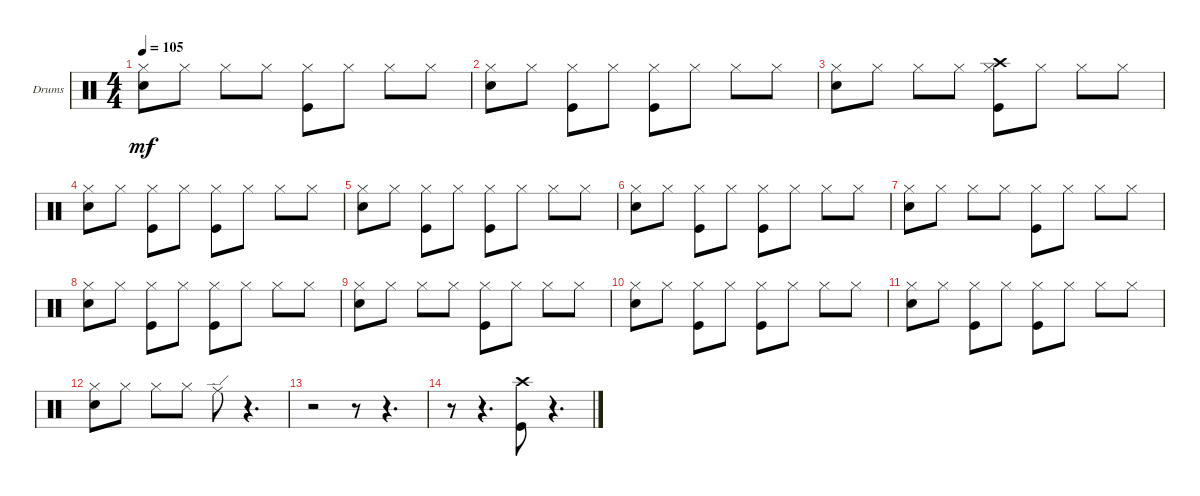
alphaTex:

\defaultSystemsLayout 4
\bracketExtendMode groupsimilarinstruments
\firstSystemTrackNameOrientation horizontal
\otherSystemsTrackNameOrientation horizontal
\track ("Drumkit" "Drums") {instrument percussion}
\staff {score}
\articulation defaults
\ts (4 4)
\tempo 105
\clef neutral
\scale
0.333333
\ks c
("Snare (hit) 2" "Hi-Hat (closed)").8{dy mf} "Hi-Hat (closed)".8 "Hi-Hat (closed)".8 "Hi-Hat (closed)".8 ("Kick (hit)" "Hi-Hat (closed)").8 "Hi-Hat (closed)".8 "Hi-Hat (closed)".8 "Hi-Hat (closed)".8 |
\scale
0.333333 ("Snare (hit) 2" "Hi-Hat (closed)").8 "Hi-Hat (closed)".8 ("Kick (hit)" "Hi-Hat (closed)").8 "Hi-Hat (closed)".8 ("Kick (hit)" "Hi-Hat (closed)").8 "Hi-Hat (closed)".8 "Hi-Hat (closed)".8 "Hi-Hat (closed)".8 |
\scale
0.333333 ("Snare (hit) 2" "Hi-Hat (closed)").8 "Hi-Hat (closed)".8 "Hi-Hat (closed)".8 "Hi-Hat (closed)".8 ("Hi-Hat (closed)" "Crash high (hit)" "Kick (hit)").8 "Hi-Hat (closed)".8 "Hi-Hat (closed)".8 "Hi-Hat (closed)".8 |
\scale
0.333333 ("Hi-Hat (closed)" "Snare (hit) 2").8 "Hi-Hat (closed)".8 ("Hi-Hat (closed)" "Kick (hit)").8 "Hi-Hat (closed)".8 ("Hi-Hat (closed)" "Kick (hit)").8 "Hi-Hat (closed)".8 "Hi-Hat (closed)".8 "Hi-Hat (closed)".8 |
\scale
0.333333 ("Hi-Hat (closed)" "Snare (hit) 2").8 "Hi-Hat (closed)".8 ("Hi-Hat (closed)" "Kick (hit)").8 "Hi-Hat (closed)".8 ("Hi-Hat (closed)" "Kick (hit)").8 "Hi-Hat (closed)".8 "Hi-Hat (closed)".8 "Hi-Hat (closed)".8 |
\scale
0.333333 ("Hi-Hat (closed)" "Snare (hit) 2").8 "Hi-Hat (closed)".8 ("Hi-Hat (closed)" "Kick (hit)").8 "Hi-Hat (closed)".8 ("Kick (hit)" "Hi-Hat (closed)").8 "Hi-Hat (closed)".8 "Hi-Hat (closed)".8 "Hi-Hat (closed)".8 |
\scale
0.333333 ("Snare (hit) 2" "Hi-Hat (closed)").8 "Hi-Hat (closed)".8 "Hi-Hat (closed)".8 "Hi-Hat (closed)".8 ("Kick (hit)" "Hi-Hat (closed)").8 "Hi-Hat (closed)".8 "Hi-Hat (closed)".8 "Hi-Hat (closed)".8 |
\scale
0.333333 ("Snare (hit) 2" "Hi-Hat (closed)").8 "Hi-Hat (closed)".8 ("Kick (hit)" "Hi-Hat (closed)").8 "Hi-Hat (closed)".8 ("Kick (hit)" "Hi-Hat (closed)").8 "Hi-Hat (closed)".8 "Hi-Hat (closed)".8 "Hi-Hat (closed)".8 |
\scale
0.333333 ("Snare (hit) 2" "Hi-Hat (closed)").8 "Hi-Hat (closed)".8 "Hi-Hat (closed)".8 "Hi-Hat (closed)".8 ("Kick (hit)" "Hi-Hat (closed)").8 "Hi-Hat (closed)".8 "Hi-Hat (closed)".8 "Hi-Hat (closed)".8 |
\scale
0.333333 ("Snare (hit) 2" "Hi-Hat (closed)").8 "Hi-Hat (closed)".8 ("Kick (hit)" "Hi-Hat (closed)").8 "Hi-Hat (closed)".8 ("Kick (hit)" "Hi-Hat (closed)").8 "Hi-Hat (closed)".8 "Hi-Hat (closed)".8 "Hi-Hat (closed)".8 |
\scale
0.333333 ("Snare (hit) 2" "Hi-Hat (closed)").8 "Hi-Hat (closed)".8 ("Hi-Hat (closed)" "Kick (hit)").8 "Hi-Hat (closed)".8 ("Kick (hit)" "Hi-Hat (closed)").8 "Hi-Hat (closed)".8 "Hi-Hat (closed)".8 "Hi-Hat (closed)".8 |
\scale
0.333333 ("Snare (hit) 2" "Hi-Hat (closed)").8 "Hi-Hat (closed)".8 "Hi-Hat (closed)".8 "Hi-Hat (closed)".8 "Ride (edge)".8 r.4{d} |
\scale
0.333333 r.2 r.8 r.4{d} |
\scale
0.333333 r.8 r.4{d} ("Crash high (hit)" "Kick (hit)").8 r.4{d} |
\scale
0.333333 |
\scale
0.333333
